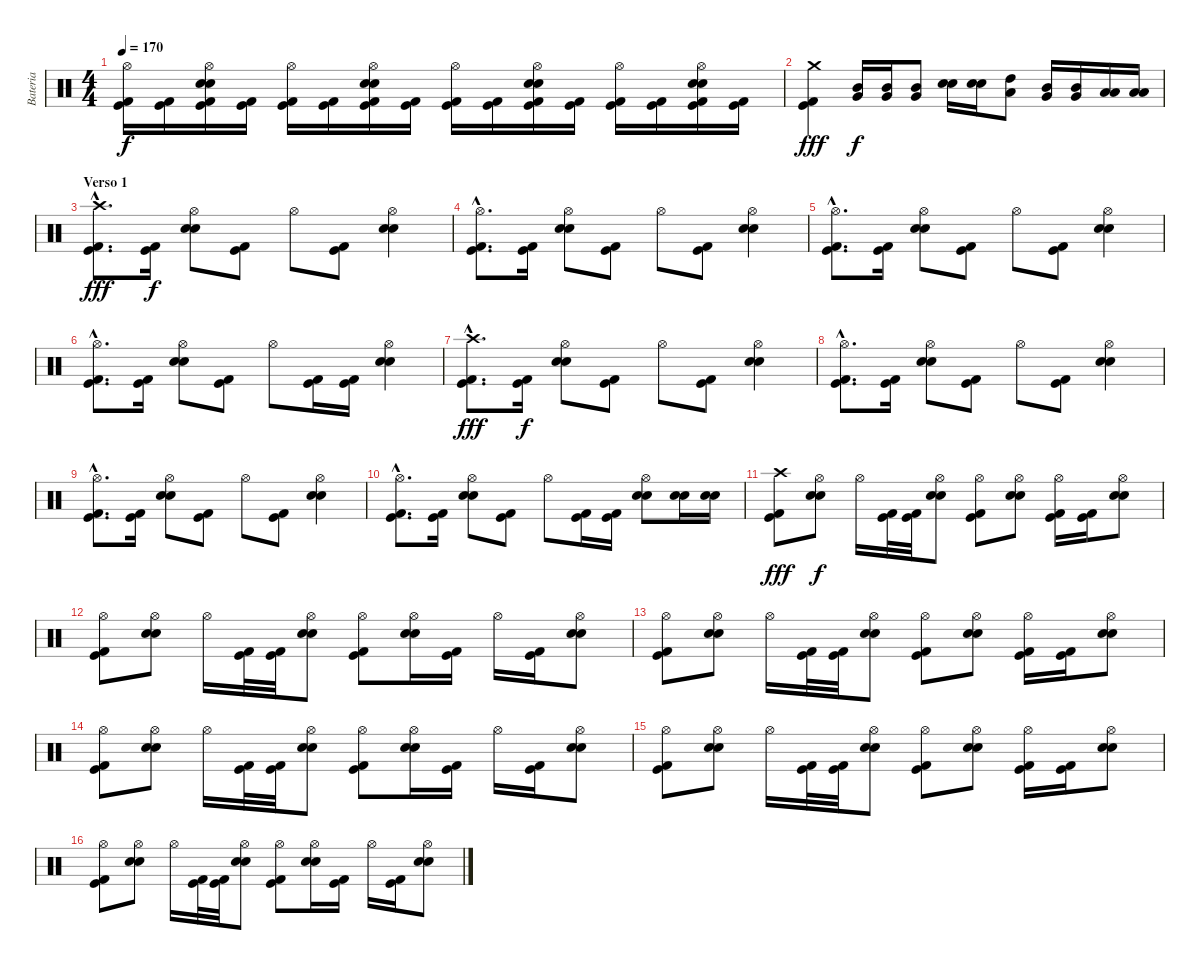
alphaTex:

\track ("Bateria" "Bateria") {instrument percussion}
\staff {score}
\articulation defaults
\ts (4 4)
\tempo 170
\clef neutral
\ks c
("Hi-Hat (open)" "Kick (hit) 2" "Kick (hit)").16{dy f} ("Kick (hit) 2" "Kick (hit)").16 ("Hi-Hat (open)" "Electric Snare (hit)" "Snare (hit) 2" "Kick (hit) 2" "Kick (hit)").16 ("Kick (hit) 2" "Kick (hit)").16 ("Hi-Hat (open)" "Kick (hit) 2" "Kick (hit)").16 ("Kick (hit) 2" "Kick (hit)").16 ("Hi-Hat (open)" "Electric Snare (hit)" "Snare (hit) 2" "Kick (hit) 2" "Kick (hit)").16 ("Kick (hit) 2" "Kick (hit)").16 ("Hi-Hat (open)" "Kick (hit) 2" "Kick (hit)").16 ("Kick (hit) 2" "Kick (hit)").16 ("Hi-Hat (open)" "Electric Snare (hit)" "Snare (hit) 2" "Kick (hit) 2" "Kick (hit)").16 ("Kick (hit) 2" "Kick (hit)").16 ("Hi-Hat (open)" "Kick (hit) 2" "Kick (hit)").16 ("Kick (hit) 2" "Kick (hit)").16 ("Hi-Hat (open)" "Electric Snare (hit)" "Snare (hit) 2" "Kick (hit) 2" "Kick (hit)").16 ("Kick (hit) 2" "Kick (hit)").16 |
("Crash medium (hit)" "Kick (hit) 2" "Kick (hit)").4{dy fff} ("Mid Tom (hit)" "Very Low Tom (hit)").16{dy f} ("Mid Tom (hit)" "Very Low Tom (hit)").16 ("Mid Tom (hit)" "Very Low Tom (hit)").8 ("Electric Snare (hit)" "Snare (hit) 2").16 ("Electric Snare (hit)" "Snare (hit) 2").16 ("High Tom (hit)" "Low Tom (hit)").8 ("Mid Tom (hit)" "Very Low Tom (hit)").16 ("Mid Tom (hit)" "Very Low Tom (hit)").16 ("Low Tom (hit)" "Low Floor Tom (hit)").16 ("Low Tom (hit)" "Low Floor Tom (hit)").16 |
\section ("" "Verso 1")
("Crash high (hit)"{hac} "Kick (hit) 2"{hac} "Kick (hit)"{hac}).8{d dy fff} ("Kick (hit) 2" "Kick (hit)").16{dy f} ("Hi-Hat (open)" "Electric Snare (hit)" "Snare (hit) 2").8 ("Kick (hit) 2" "Kick (hit)").8 "Hi-Hat (open)".8 ("Kick (hit) 2" "Kick (hit)").8 ("Hi-Hat (open)" "Electric Snare (hit)" "Snare (hit) 2").4 |
("Hi-Hat (open)"{hac} "Kick (hit) 2"{hac} "Kick (hit)"{hac}).8{d} ("Kick (hit) 2" "Kick (hit)").16 ("Hi-Hat (open)" "Electric Snare (hit)" "Snare (hit) 2").8 ("Kick (hit) 2" "Kick (hit)").8 "Hi-Hat (open)".8 ("Kick (hit) 2" "Kick (hit)").8 ("Hi-Hat (open)" "Electric Snare (hit)" "Snare (hit) 2").4 |
("Hi-Hat (open)"{hac} "Kick (hit) 2"{hac} "Kick (hit)"{hac}).8{d} ("Kick (hit) 2" "Kick (hit)").16 ("Hi-Hat (open)" "Electric Snare (hit)" "Snare (hit) 2").8 ("Kick (hit) 2" "Kick (hit)").8 "Hi-Hat (open)".8 ("Kick (hit) 2" "Kick (hit)").8 ("Hi-Hat (open)" "Electric Snare (hit)" "Snare (hit) 2").4 |
("Hi-Hat (open)"{hac} "Kick (hit) 2"{hac} "Kick (hit)"{hac}).8{d} ("Kick (hit) 2" "Kick (hit)").16 ("Hi-Hat (open)" "Electric Snare (hit)" "Snare (hit) 2").8 ("Kick (hit) 2" "Kick (hit)").8 "Hi-Hat (open)".8 ("Kick (hit) 2" "Kick (hit)").16 ("Kick (hit) 2" "Kick (hit)").16 ("Hi-Hat (open)" "Electric Snare (hit)" "Snare (hit) 2").4 |
("Crash high (hit)"{hac} "Kick (hit) 2"{hac} "Kick (hit)"{hac}).8{d dy fff} ("Kick (hit) 2" "Kick (hit)").16{dy f} ("Hi-Hat (open)" "Electric Snare (hit)" "Snare (hit) 2").8 ("Kick (hit) 2" "Kick (hit)").8 "Hi-Hat (open)".8 ("Kick (hit) 2" "Kick (hit)").8 ("Hi-Hat (open)" "Electric Snare (hit)" "Snare (hit) 2").4 |
("Hi-Hat (open)"{hac} "Kick (hit) 2"{hac} "Kick (hit)"{hac}).8{d} ("Kick (hit) 2" "Kick (hit)").16 ("Hi-Hat (open)" "Electric Snare (hit)" "Snare (hit) 2").8 ("Kick (hit) 2" "Kick (hit)").8 "Hi-Hat (open)".8 ("Kick (hit) 2" "Kick (hit)").8 ("Hi-Hat (open)" "Electric Snare (hit)" "Snare (hit) 2").4 |
("Hi-Hat (open)"{hac} "Kick (hit) 2"{hac} "Kick (hit)"{hac}).8{d} ("Kick (hit) 2" "Kick (hit)").16 ("Hi-Hat (open)" "Electric Snare (hit)" "Snare (hit) 2").8 ("Kick (hit) 2" "Kick (hit)").8 "Hi-Hat (open)".8 ("Kick (hit) 2" "Kick (hit)").8 ("Hi-Hat (open)" "Electric Snare (hit)" "Snare (hit) 2").4 |
("Hi-Hat (open)"{hac} "Kick (hit) 2"{hac} "Kick (hit)"{hac}).8{d} ("Kick (hit) 2" "Kick (hit)").16 ("Hi-Hat (open)" "Electric Snare (hit)" "Snare (hit) 2").8 ("Kick (hit) 2" "Kick (hit)").8 "Hi-Hat (open)".8 ("Kick (hit) 2" "Kick (hit)").16 ("Kick (hit) 2" "Kick (hit)").16 ("Hi-Hat (open)" "Electric Snare (hit)" "Snare (hit) 2").8 ("Electric Snare (hit)" "Snare (hit) 2").16 ("Electric Snare (hit)" "Snare (hit) 2").16 |
("Crash high (hit)" "Kick (hit) 2" "Kick (hit)").8{dy fff} ("Hi-Hat (open)" "Electric Snare (hit)" "Snare (hit) 2").8{dy f} "Hi-Hat (open)".16 ("Kick (hit) 2" "Kick (hit)").32 ("Kick (hit) 2" "Kick (hit)").32 ("Hi-Hat (open)" "Electric Snare (hit)" "Snare (hit) 2").8 ("Hi-Hat (open)" "Kick (hit) 2" "Kick (hit)").8 ("Hi-Hat (open)" "Electric Snare (hit)" "Snare (hit) 2").8 ("Hi-Hat (open)" "Kick (hit) 2" "Kick (hit)").16 ("Kick (hit) 2" "Kick (hit)").16 ("Hi-Hat (open)" "Electric Snare (hit)" "Snare (hit) 2").8 |
("Hi-Hat (open)" "Kick (hit) 2" "Kick (hit)").8 ("Hi-Hat (open)" "Electric Snare (hit)" "Snare (hit) 2").8 "Hi-Hat (open)".16 ("Kick (hit) 2" "Kick (hit)").32 ("Kick (hit) 2" "Kick (hit)").32 ("Hi-Hat (open)" "Electric Snare (hit)" "Snare (hit) 2").8 ("Hi-Hat (open)" "Kick (hit) 2" "Kick (hit)").8 ("Hi-Hat (open)" "Electric Snare (hit)" "Snare (hit) 2").16 ("Kick (hit) 2" "Kick (hit)").16 "Hi-Hat (open)".16 ("Kick (hit) 2" "Kick (hit)").16 ("Hi-Hat (open)" "Electric Snare (hit)" "Snare (hit) 2").8 |
("Hi-Hat (open)" "Kick (hit) 2" "Kick (hit)").8 ("Hi-Hat (open)" "Electric Snare (hit)" "Snare (hit) 2").8 "Hi-Hat (open)".16 ("Kick (hit) 2" "Kick (hit)").32 ("Kick (hit) 2" "Kick (hit)").32 ("Hi-Hat (open)" "Electric Snare (hit)" "Snare (hit) 2").8 ("Hi-Hat (open)" "Kick (hit) 2" "Kick (hit)").8 ("Hi-Hat (open)" "Electric Snare (hit)" "Snare (hit) 2").8 ("Hi-Hat (open)" "Kick (hit) 2" "Kick (hit)").16 ("Kick (hit) 2" "Kick (hit)").16 ("Hi-Hat (open)" "Electric Snare (hit)" "Snare (hit) 2").8 |
("Hi-Hat (open)" "Kick (hit) 2" "Kick (hit)").8 ("Hi-Hat (open)" "Electric Snare (hit)" "Snare (hit) 2").8 "Hi-Hat (open)".16 ("Kick (hit) 2" "Kick (hit)").32 ("Kick (hit) 2" "Kick (hit)").32 ("Hi-Hat (open)" "Electric Snare (hit)" "Snare (hit) 2").8 ("Hi-Hat (open)" "Kick (hit) 2" "Kick (hit)").8 ("Hi-Hat (open)" "Electric Snare (hit)" "Snare (hit) 2").16 ("Kick (hit) 2" "Kick (hit)").16 "Hi-Hat (open)".16 ("Kick (hit) 2" "Kick (hit)").16 ("Hi-Hat (open)" "Electric Snare (hit)" "Snare (hit) 2").8 |
("Hi-Hat (open)" "Kick (hit) 2" "Kick (hit)").8 ("Hi-Hat (open)" "Electric Snare (hit)" "Snare (hit) 2").8 "Hi-Hat (open)".16 ("Kick (hit) 2" "Kick (hit)").32 ("Kick (hit) 2" "Kick (hit)").32 ("Hi-Hat (open)" "Electric Snare (hit)" "Snare (hit) 2").8 ("Hi-Hat (open)" "Kick (hit) 2" "Kick (hit)").8 ("Hi-Hat (open)" "Electric Snare (hit)" "Snare (hit) 2").8 ("Hi-Hat (open)" "Kick (hit) 2" "Kick (hit)").16 ("Kick (hit) 2" "Kick (hit)").16 ("Hi-Hat (open)" "Electric Snare (hit)" "Snare (hit) 2").8 |
("Hi-Hat (open)" "Kick (hit) 2" "Kick (hit)").8 ("Hi-Hat (open)" "Electric Snare (hit)" "Snare (hit) 2").8 "Hi-Hat (open)".16 ("Kick (hit) 2" "Kick (hit)").32 ("Kick (hit) 2" "Kick (hit)").32 ("Hi-Hat (open)" "Electric Snare (hit)" "Snare (hit) 2").8 ("Hi-Hat (open)" "Kick (hit) 2" "Kick (hit)").8 ("Hi-Hat (open)" "Electric Snare (hit)" "Snare (hit) 2").16 ("Kick (hit) 2" "Kick (hit)").16 "Hi-Hat (open)".16 ("Kick (hit) 2" "Kick (hit)").16 ("Hi-Hat (open)" "Electric Snare (hit)" "Snare (hit) 2").8
